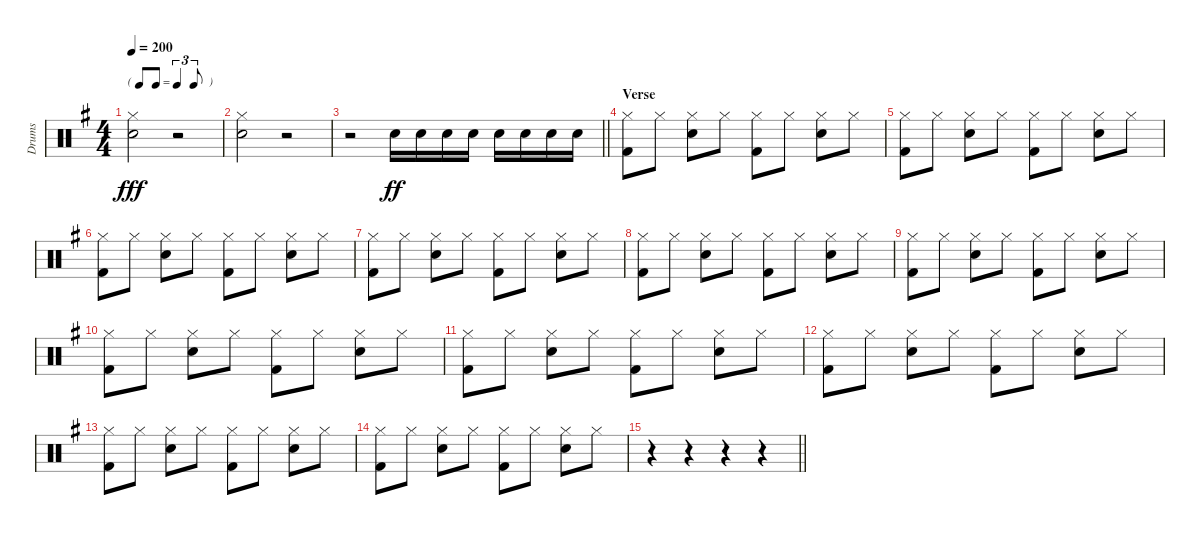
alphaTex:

\track ("Drums" "Drums") {instrument percussion}
\staff {score}
\articulation defaults
\ts (4 4)
\tf triplet8th
\tempo 200
\clef neutral
\ks g
("Snare (hit) 2" "Hi-Hat (closed)").2{dy fff} r.2 |
("Snare (hit) 2" "Hi-Hat (closed)").2 r.2 |
\barLineRight lightlight
r.2 "Snare (hit) 2".16{dy ff} "Snare (hit) 2".16 "Snare (hit) 2".16 "Snare (hit) 2".16 "Snare (hit) 2".16 "Snare (hit) 2".16 "Snare (hit) 2".16 "Snare (hit) 2".16 |
\section ("" "Verse")
("Hi-Hat (closed)" "Kick (hit) 2").8 "Hi-Hat (closed)".8 ("Hi-Hat (closed)" "Snare (hit) 2").8 "Hi-Hat (closed)".8 ("Hi-Hat (closed)" "Kick (hit) 2").8 "Hi-Hat (closed)".8 ("Hi-Hat (closed)" "Snare (hit) 2").8 "Hi-Hat (closed)".8 |
("Hi-Hat (closed)" "Kick (hit) 2").8 "Hi-Hat (closed)".8 ("Hi-Hat (closed)" "Snare (hit) 2").8 "Hi-Hat (closed)".8 ("Hi-Hat (closed)" "Kick (hit) 2").8 "Hi-Hat (closed)".8 ("Hi-Hat (closed)" "Snare (hit) 2").8 "Hi-Hat (closed)".8 |
("Hi-Hat (closed)" "Kick (hit) 2").8 "Hi-Hat (closed)".8 ("Hi-Hat (closed)" "Snare (hit) 2").8 "Hi-Hat (closed)".8 ("Hi-Hat (closed)" "Kick (hit) 2").8 "Hi-Hat (closed)".8 ("Hi-Hat (closed)" "Snare (hit) 2").8 "Hi-Hat (closed)".8 |
("Hi-Hat (closed)" "Kick (hit) 2").8 "Hi-Hat (closed)".8 ("Hi-Hat (closed)" "Snare (hit) 2").8 "Hi-Hat (closed)".8 ("Hi-Hat (closed)" "Kick (hit) 2").8 "Hi-Hat (closed)".8 ("Hi-Hat (closed)" "Snare (hit) 2").8 "Hi-Hat (closed)".8 |
("Hi-Hat (closed)" "Kick (hit) 2").8 "Hi-Hat (closed)".8 ("Hi-Hat (closed)" "Snare (hit) 2").8 "Hi-Hat (closed)".8 ("Hi-Hat (closed)" "Kick (hit) 2").8 "Hi-Hat (closed)".8 ("Hi-Hat (closed)" "Snare (hit) 2").8 "Hi-Hat (closed)".8 |
("Hi-Hat (closed)" "Kick (hit) 2").8 "Hi-Hat (closed)".8 ("Hi-Hat (closed)" "Snare (hit) 2").8 "Hi-Hat (closed)".8 ("Hi-Hat (closed)" "Kick (hit) 2").8 "Hi-Hat (closed)".8 ("Hi-Hat (closed)" "Snare (hit) 2").8 "Hi-Hat (closed)".8 |
("Hi-Hat (closed)" "Kick (hit) 2").8 "Hi-Hat (closed)".8 ("Hi-Hat (closed)" "Snare (hit) 2").8 "Hi-Hat (closed)".8 ("Hi-Hat (closed)" "Kick (hit) 2").8 "Hi-Hat (closed)".8 ("Hi-Hat (closed)" "Snare (hit) 2").8 "Hi-Hat (closed)".8 |
("Hi-Hat (closed)" "Kick (hit) 2").8 "Hi-Hat (closed)".8 ("Hi-Hat (closed)" "Snare (hit) 2").8 "Hi-Hat (closed)".8 ("Hi-Hat (closed)" "Kick (hit) 2").8 "Hi-Hat (closed)".8 ("Hi-Hat (closed)" "Snare (hit) 2").8 "Hi-Hat (closed)".8 |
("Hi-Hat (closed)" "Kick (hit) 2").8 "Hi-Hat (closed)".8 ("Hi-Hat (closed)" "Snare (hit) 2").8 "Hi-Hat (closed)".8 ("Hi-Hat (closed)" "Kick (hit) 2").8 "Hi-Hat (closed)".8 ("Hi-Hat (closed)" "Snare (hit) 2").8 "Hi-Hat (closed)".8 |
("Hi-Hat (closed)" "Kick (hit) 2").8 "Hi-Hat (closed)".8 ("Hi-Hat (closed)" "Snare (hit) 2").8 "Hi-Hat (closed)".8 ("Hi-Hat (closed)" "Kick (hit) 2").8 "Hi-Hat (closed)".8 ("Hi-Hat (closed)" "Snare (hit) 2").8 "Hi-Hat (closed)".8 |
("Hi-Hat (closed)" "Kick (hit) 2").8 "Hi-Hat (closed)".8 ("Hi-Hat (closed)" "Snare (hit) 2").8 "Hi-Hat (closed)".8 ("Hi-Hat (closed)" "Kick (hit) 2").8 "Hi-Hat (closed)".8 ("Hi-Hat (closed)" "Snare (hit) 2").8 "Hi-Hat (closed)".8 |
\barLineRight lightlight
r.4 r.4 r.4 r.4
